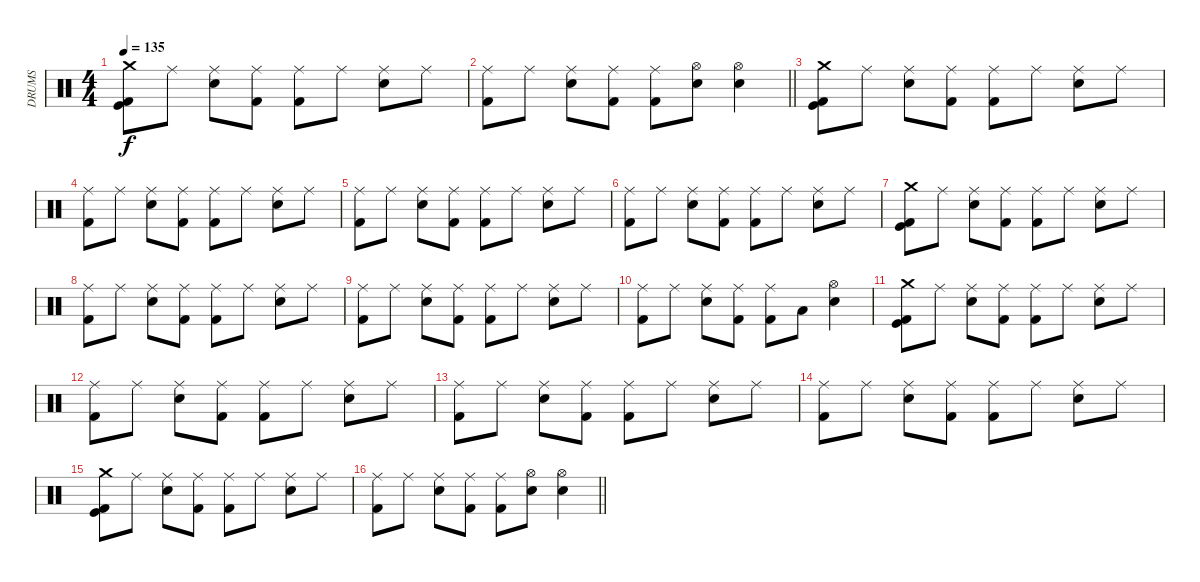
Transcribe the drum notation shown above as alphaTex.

\track ("DRUMS" "DRUMS") {instrument percussion}
\staff {score}
\articulation defaults
\ts (4 4)
\tempo 135
\clef neutral
\ks c
("Crash medium (hit)" "Kick (hit) 2" "Kick (hit)").8{dy f} "Ride (middle)".8 ("Ride (middle)" "Electric Snare (hit)").8 ("Ride (middle)" "Kick (hit) 2").8 ("Ride (middle)" "Kick (hit) 2").8 "Ride (middle)".8 ("Ride (middle)" "Electric Snare (hit)").8 "Ride (middle)".8 |
\barLineRight lightlight
("Ride (middle)" "Kick (hit) 2").8 "Ride (middle)".8 ("Ride (middle)" "Electric Snare (hit)").8 ("Ride (middle)" "Kick (hit) 2").8 ("Ride (middle)" "Kick (hit) 2").8 ("Hi-Hat (open)" "Electric Snare (hit)").8 ("Hi-Hat (open)" "Electric Snare (hit)").4 |
("Crash medium (hit)" "Kick (hit) 2" "Kick (hit)").8 "Ride (middle)".8 ("Ride (middle)" "Electric Snare (hit)").8 ("Ride (middle)" "Kick (hit) 2").8 ("Ride (middle)" "Kick (hit) 2").8 "Ride (middle)".8 ("Ride (middle)" "Electric Snare (hit)").8 "Ride (middle)".8 |
("Ride (middle)" "Kick (hit) 2").8 "Ride (middle)".8 ("Ride (middle)" "Electric Snare (hit)").8 ("Ride (middle)" "Kick (hit) 2").8 ("Ride (middle)" "Kick (hit) 2").8 "Ride (middle)".8 ("Ride (middle)" "Electric Snare (hit)").8 "Ride (middle)".8 |
("Ride (middle)" "Kick (hit) 2").8 "Ride (middle)".8 ("Ride (middle)" "Electric Snare (hit)").8 ("Ride (middle)" "Kick (hit) 2").8 ("Ride (middle)" "Kick (hit) 2").8 "Ride (middle)".8 ("Ride (middle)" "Electric Snare (hit)").8 "Ride (middle)".8 |
("Ride (middle)" "Kick (hit) 2").8 "Ride (middle)".8 ("Ride (middle)" "Electric Snare (hit)").8 ("Ride (middle)" "Kick (hit) 2").8 ("Ride (middle)" "Kick (hit) 2").8 "Ride (middle)".8 ("Ride (middle)" "Electric Snare (hit)").8 "Ride (middle)".8 |
("Crash medium (hit)" "Kick (hit) 2" "Kick (hit)").8 "Ride (middle)".8 ("Ride (middle)" "Electric Snare (hit)").8 ("Ride (middle)" "Kick (hit) 2").8 ("Ride (middle)" "Kick (hit) 2").8 "Ride (middle)".8 ("Ride (middle)" "Electric Snare (hit)").8 "Ride (middle)".8 |
("Ride (middle)" "Kick (hit) 2").8 "Ride (middle)".8 ("Ride (middle)" "Electric Snare (hit)").8 ("Ride (middle)" "Kick (hit) 2").8 ("Ride (middle)" "Kick (hit) 2").8 "Ride (middle)".8 ("Ride (middle)" "Electric Snare (hit)").8 "Ride (middle)".8 |
("Ride (middle)" "Kick (hit) 2").8 "Ride (middle)".8 ("Ride (middle)" "Electric Snare (hit)").8 ("Ride (middle)" "Kick (hit) 2").8 ("Ride (middle)" "Kick (hit) 2").8 "Ride (middle)".8 ("Ride (middle)" "Electric Snare (hit)").8 "Ride (middle)".8 |
("Ride (middle)" "Kick (hit) 2").8 "Ride (middle)".8 ("Ride (middle)" "Electric Snare (hit)").8 ("Ride (middle)" "Kick (hit) 2").8 ("Ride (middle)" "Kick (hit) 2").8 "Low Tom (hit)".8 ("Hi-Hat (open)" "Electric Snare (hit)").4 |
("Crash medium (hit)" "Kick (hit) 2" "Kick (hit)").8 "Ride (middle)".8 ("Ride (middle)" "Electric Snare (hit)").8 ("Ride (middle)" "Kick (hit) 2").8 ("Ride (middle)" "Kick (hit) 2").8 "Ride (middle)".8 ("Ride (middle)" "Electric Snare (hit)").8 "Ride (middle)".8 |
("Ride (middle)" "Kick (hit) 2").8 "Ride (middle)".8 ("Ride (middle)" "Electric Snare (hit)").8 ("Ride (middle)" "Kick (hit) 2").8 ("Ride (middle)" "Kick (hit) 2").8 "Ride (middle)".8 ("Ride (middle)" "Electric Snare (hit)").8 "Ride (middle)".8 |
("Ride (middle)" "Kick (hit) 2").8 "Ride (middle)".8 ("Ride (middle)" "Electric Snare (hit)").8 ("Ride (middle)" "Kick (hit) 2").8 ("Ride (middle)" "Kick (hit) 2").8 "Ride (middle)".8 ("Ride (middle)" "Electric Snare (hit)").8 "Ride (middle)".8 |
("Ride (middle)" "Kick (hit) 2").8 "Ride (middle)".8 ("Ride (middle)" "Electric Snare (hit)").8 ("Ride (middle)" "Kick (hit) 2").8 ("Ride (middle)" "Kick (hit) 2").8 "Ride (middle)".8 ("Ride (middle)" "Electric Snare (hit)").8 "Ride (middle)".8 |
("Crash medium (hit)" "Kick (hit) 2" "Kick (hit)").8 "Ride (middle)".8 ("Ride (middle)" "Electric Snare (hit)").8 ("Ride (middle)" "Kick (hit) 2").8 ("Ride (middle)" "Kick (hit) 2").8 "Ride (middle)".8 ("Ride (middle)" "Electric Snare (hit)").8 "Ride (middle)".8 |
\barLineRight lightlight
("Ride (middle)" "Kick (hit) 2").8 "Ride (middle)".8 ("Ride (middle)" "Electric Snare (hit)").8 ("Ride (middle)" "Kick (hit) 2").8 ("Ride (middle)" "Kick (hit) 2").8 ("Hi-Hat (open)" "Electric Snare (hit)").8 ("Hi-Hat (open)" "Electric Snare (hit)").4
